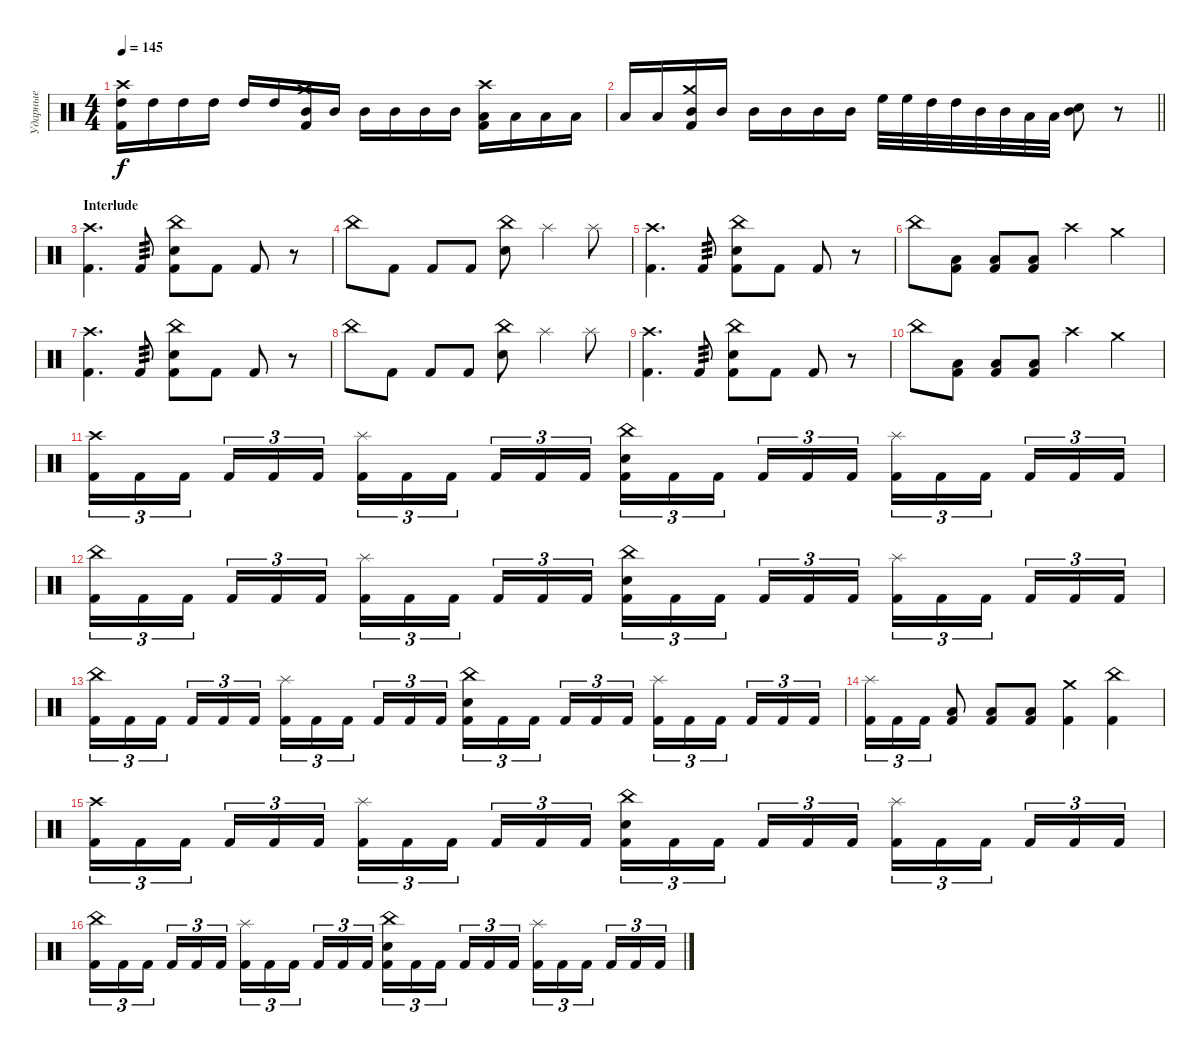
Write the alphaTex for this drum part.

\track ("Ударные" "Ударные") {instrument percussion}
\staff {score}
\articulation defaults
\ts (4 4)
\tempo 145
\clef neutral
\ks c
("Crash high (hit)" "High Tom (hit)" "Kick (hit) 2").16{dy f} "High Tom (hit)".16 "High Tom (hit)".16 "High Tom (hit)".16 "High Tom (hit)".16 "High Tom (hit)".16 ("Crash medium (hit)" "Mid Tom (hit)" "Kick (hit) 2").16 "Mid Tom (hit)".16 "Mid Tom (hit)".16 "Mid Tom (hit)".16 "Mid Tom (hit)".16 "Mid Tom (hit)".16 ("Crash high (hit)" "Low Tom (hit)" "Kick (hit) 2").16 "Low Tom (hit)".16 "Low Tom (hit)".16 "Low Tom (hit)".16 |
\barLineRight lightlight "Low Tom (hit)".16 "Low Tom (hit)".16
("Crash medium (hit)" "Mid Tom (hit)" "Kick (hit) 2").16 "Mid Tom (hit)".16 "Mid Tom (hit)".16 "Mid Tom (hit)".16 "Mid Tom (hit)".16 "Mid Tom (hit)".16 "High Floor Tom (hit)".32 "High Floor Tom (hit)".32 "High Tom (hit)".32 "High Tom (hit)".32 "Mid Tom (hit)".32 "Mid Tom (hit)".32 "Low Tom (hit)".32 "Low Tom (hit)".32 ("Electric Snare (hit)" "Mid Tom (hit)").8 r.8 |
\section ("" "Interlude")
("Crash high (hit)" "Kick (hit) 2").4{d} "Kick (hit) 2".8{tp 3} ("China (hit)" "Electric Snare (hit)" "Kick (hit) 2").8 "Kick (hit) 2".8 "Kick (hit) 2".8 r.8 |
"China (hit)".8 "Kick (hit) 2".8 "Kick (hit) 2".8 "Kick (hit) 2".8 ("China (hit)" "Electric Snare (hit)").8 "Splash (hit)".4 "Splash (hit)".8 |
("Crash high (hit)" "Kick (hit) 2").4{d} "Kick (hit) 2".8{tp 3} ("China (hit)" "Electric Snare (hit)" "Kick (hit) 2").8 "Kick (hit) 2".8 "Kick (hit) 2".8 r.8 |
"China (hit)".8 ("Low Tom (hit)" "Kick (hit) 2").8 ("Low Tom (hit)" "Kick (hit) 2").8 ("Low Tom (hit)" "Kick (hit) 2").8 "Crash high (hit)".4 "Crash medium (hit)".4 |
("Crash high (hit)" "Kick (hit) 2").4{d} "Kick (hit) 2".8{tp 3} ("China (hit)" "Electric Snare (hit)" "Kick (hit) 2").8 "Kick (hit) 2".8 "Kick (hit) 2".8 r.8 |
"China (hit)".8 "Kick (hit) 2".8 "Kick (hit) 2".8 "Kick (hit) 2".8 ("China (hit)" "Electric Snare (hit)").8 "Splash (hit)".4 "Splash (hit)".8 |
("Crash high (hit)" "Kick (hit) 2").4{d} "Kick (hit) 2".8{tp 3} ("China (hit)" "Electric Snare (hit)" "Kick (hit) 2").8 "Kick (hit) 2".8 "Kick (hit) 2".8 r.8 |
"China (hit)".8 ("Low Tom (hit)" "Kick (hit) 2").8 ("Low Tom (hit)" "Kick (hit) 2").8 ("Low Tom (hit)" "Kick (hit) 2").8 "Crash high (hit)".4 "Crash medium (hit)".4 |
("Crash high (hit)" "Kick (hit) 2").16{tu (3 2)} "Kick (hit) 2".16{tu (3 2)} "Kick (hit) 2".16{tu (3 2) beam splitsecondary} "Kick (hit) 2".16{tu (3 2)} "Kick (hit) 2".16{tu (3 2)} "Kick (hit) 2".16{tu (3 2)} ("Splash (hit)" "Kick (hit) 2").16{tu (3 2)} "Kick (hit) 2".16{tu (3 2)} "Kick (hit) 2".16{tu (3 2) beam splitsecondary} "Kick (hit) 2".16{tu (3 2)} "Kick (hit) 2".16{tu (3 2)} "Kick (hit) 2".16{tu (3 2)} ("China (hit)" "Electric Snare (hit)" "Kick (hit) 2").16{tu (3 2)} "Kick (hit) 2".16{tu (3 2)} "Kick (hit) 2".16{tu (3 2) beam splitsecondary} "Kick (hit) 2".16{tu (3 2)} "Kick (hit) 2".16{tu (3 2)} "Kick (hit) 2".16{tu (3 2)} ("Splash (hit)" "Kick (hit) 2").16{tu (3 2)} "Kick (hit) 2".16{tu (3 2)} "Kick (hit) 2".16{tu (3 2) beam splitsecondary} "Kick (hit) 2".16{tu (3 2)} "Kick (hit) 2".16{tu (3 2)} "Kick (hit) 2".16{tu (3 2)} |
("China (hit)" "Kick (hit) 2").16{tu (3 2)} "Kick (hit) 2".16{tu (3 2)} "Kick (hit) 2".16{tu (3 2) beam splitsecondary} "Kick (hit) 2".16{tu (3 2)} "Kick (hit) 2".16{tu (3 2)} "Kick (hit) 2".16{tu (3 2)} ("Splash (hit)" "Kick (hit) 2").16{tu (3 2)} "Kick (hit) 2".16{tu (3 2)} "Kick (hit) 2".16{tu (3 2) beam splitsecondary} "Kick (hit) 2".16{tu (3 2)} "Kick (hit) 2".16{tu (3 2)} "Kick (hit) 2".16{tu (3 2)} ("China (hit)" "Electric Snare (hit)" "Kick (hit) 2").16{tu (3 2)} "Kick (hit) 2".16{tu (3 2)} "Kick (hit) 2".16{tu (3 2) beam splitsecondary} "Kick (hit) 2".16{tu (3 2)} "Kick (hit) 2".16{tu (3 2)} "Kick (hit) 2".16{tu (3 2)} ("Splash (hit)" "Kick (hit) 2").16{tu (3 2)} "Kick (hit) 2".16{tu (3 2)} "Kick (hit) 2".16{tu (3 2) beam splitsecondary} "Kick (hit) 2".16{tu (3 2)} "Kick (hit) 2".16{tu (3 2)} "Kick (hit) 2".16{tu (3 2)} |
("China (hit)" "Kick (hit) 2").16{tu (3 2)} "Kick (hit) 2".16{tu (3 2)} "Kick (hit) 2".16{tu (3 2) beam splitsecondary} "Kick (hit) 2".16{tu (3 2)} "Kick (hit) 2".16{tu (3 2)} "Kick (hit) 2".16{tu (3 2)} ("Splash (hit)" "Kick (hit) 2").16{tu (3 2)} "Kick (hit) 2".16{tu (3 2)} "Kick (hit) 2".16{tu (3 2) beam splitsecondary} "Kick (hit) 2".16{tu (3 2)} "Kick (hit) 2".16{tu (3 2)} "Kick (hit) 2".16{tu (3 2)} ("China (hit)" "Electric Snare (hit)" "Kick (hit) 2").16{tu (3 2)} "Kick (hit) 2".16{tu (3 2)} "Kick (hit) 2".16{tu (3 2) beam splitsecondary} "Kick (hit) 2".16{tu (3 2)} "Kick (hit) 2".16{tu (3 2)} "Kick (hit) 2".16{tu (3 2)} ("Splash (hit)" "Kick (hit) 2").16{tu (3 2)} "Kick (hit) 2".16{tu (3 2)} "Kick (hit) 2".16{tu (3 2) beam splitsecondary} "Kick (hit) 2".16{tu (3 2)} "Kick (hit) 2".16{tu (3 2)} "Kick (hit) 2".16{tu (3 2)} |
("Splash (hit)" "Kick (hit) 2").16{tu (3 2)} "Kick (hit) 2".16{tu (3 2)} "Kick (hit) 2".16{tu (3 2)} ("Low Tom (hit)" "Kick (hit) 2").8 ("Low Tom (hit)" "Kick (hit) 2").8 ("Low Tom (hit)" "Kick (hit) 2").8 ("Crash medium (hit)" "Kick (hit) 2").4 ("China (hit)" "Kick (hit) 2").4 |
("Crash high (hit)" "Kick (hit) 2").16{tu (3 2)} "Kick (hit) 2".16{tu (3 2)} "Kick (hit) 2".16{tu (3 2) beam splitsecondary} "Kick (hit) 2".16{tu (3 2)} "Kick (hit) 2".16{tu (3 2)} "Kick (hit) 2".16{tu (3 2)} ("Splash (hit)" "Kick (hit) 2").16{tu (3 2)} "Kick (hit) 2".16{tu (3 2)} "Kick (hit) 2".16{tu (3 2) beam splitsecondary} "Kick (hit) 2".16{tu (3 2)} "Kick (hit) 2".16{tu (3 2)} "Kick (hit) 2".16{tu (3 2)} ("China (hit)" "Electric Snare (hit)" "Kick (hit) 2").16{tu (3 2)} "Kick (hit) 2".16{tu (3 2)} "Kick (hit) 2".16{tu (3 2) beam splitsecondary} "Kick (hit) 2".16{tu (3 2)} "Kick (hit) 2".16{tu (3 2)} "Kick (hit) 2".16{tu (3 2)} ("Splash (hit)" "Kick (hit) 2").16{tu (3 2)} "Kick (hit) 2".16{tu (3 2)} "Kick (hit) 2".16{tu (3 2) beam splitsecondary} "Kick (hit) 2".16{tu (3 2)} "Kick (hit) 2".16{tu (3 2)} "Kick (hit) 2".16{tu (3 2)} |
("China (hit)" "Kick (hit) 2").16{tu (3 2)} "Kick (hit) 2".16{tu (3 2)} "Kick (hit) 2".16{tu (3 2) beam splitsecondary} "Kick (hit) 2".16{tu (3 2)} "Kick (hit) 2".16{tu (3 2)} "Kick (hit) 2".16{tu (3 2)} ("Splash (hit)" "Kick (hit) 2").16{tu (3 2)} "Kick (hit) 2".16{tu (3 2)} "Kick (hit) 2".16{tu (3 2) beam splitsecondary} "Kick (hit) 2".16{tu (3 2)} "Kick (hit) 2".16{tu (3 2)} "Kick (hit) 2".16{tu (3 2)} ("China (hit)" "Electric Snare (hit)" "Kick (hit) 2").16{tu (3 2)} "Kick (hit) 2".16{tu (3 2)} "Kick (hit) 2".16{tu (3 2) beam splitsecondary} "Kick (hit) 2".16{tu (3 2)} "Kick (hit) 2".16{tu (3 2)} "Kick (hit) 2".16{tu (3 2)} ("Splash (hit)" "Kick (hit) 2").16{tu (3 2)} "Kick (hit) 2".16{tu (3 2)} "Kick (hit) 2".16{tu (3 2) beam splitsecondary} "Kick (hit) 2".16{tu (3 2)} "Kick (hit) 2".16{tu (3 2)} "Kick (hit) 2".16{tu (3 2)}
